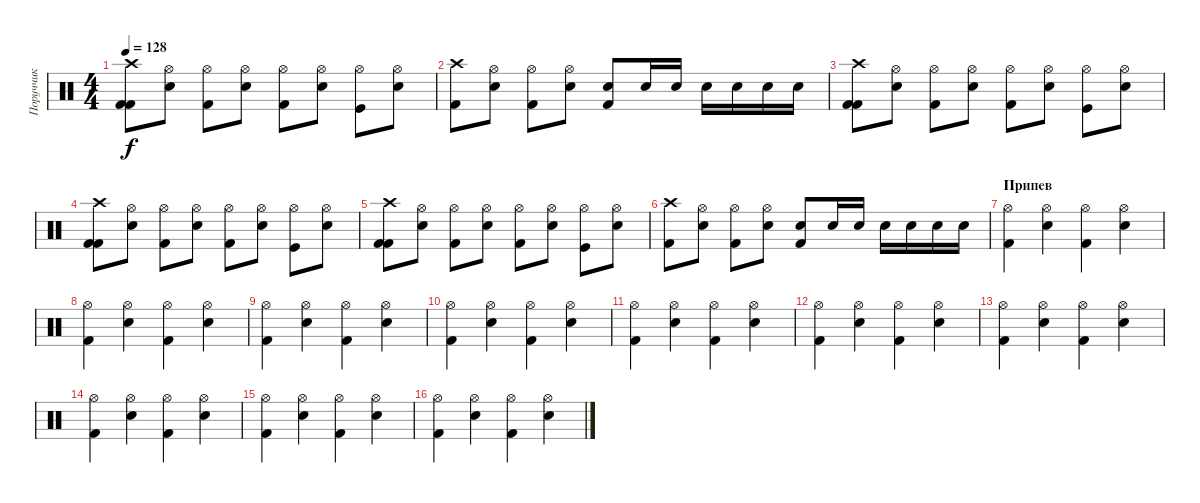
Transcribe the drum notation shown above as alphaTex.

\track ("Поруччик" "Поруччик") {instrument percussion}
\staff {score}
\articulation defaults
\ts (4 4)
\tempo 128
\clef neutral
\ks c
("Crash high (hit)" "Kick (hit) 2" "Kick (hit) 2").8{dy f} ("Hi-Hat (open)" "Snare (hit) 2").8 ("Hi-Hat (open)" "Kick (hit) 2").8 ("Hi-Hat (open)" "Snare (hit) 2").8 ("Hi-Hat (open)" "Kick (hit) 2").8 ("Hi-Hat (open)" "Snare (hit) 2").8 ("Hi-Hat (open)" "Kick (hit)").8 ("Snare (hit) 2" "Hi-Hat (open)").8 |
("Kick (hit) 2" "Crash high (hit)").8 ("Snare (hit) 2" "Hi-Hat (open)").8 ("Kick (hit) 2" "Hi-Hat (open)").8 ("Snare (hit) 2" "Hi-Hat (open)").8 ("Snare (hit) 2" "Kick (hit) 2").8 "Snare (hit) 2".16 "Snare (hit) 2".16 "Snare (hit) 2".16 "Snare (hit) 2".16 "Snare (hit) 2".16 "Snare (hit) 2".16 |
("Crash high (hit)" "Kick (hit) 2" "Kick (hit) 2").8 ("Hi-Hat (open)" "Snare (hit) 2").8 ("Hi-Hat (open)" "Kick (hit) 2").8 ("Hi-Hat (open)" "Snare (hit) 2").8 ("Hi-Hat (open)" "Kick (hit) 2").8 ("Hi-Hat (open)" "Snare (hit) 2").8 ("Hi-Hat (open)" "Kick (hit)").8 ("Snare (hit) 2" "Hi-Hat (open)").8 |
("Crash high (hit)" "Kick (hit) 2" "Kick (hit) 2").8 ("Hi-Hat (open)" "Snare (hit) 2").8 ("Hi-Hat (open)" "Kick (hit) 2").8 ("Hi-Hat (open)" "Snare (hit) 2").8 ("Hi-Hat (open)" "Kick (hit) 2").8 ("Hi-Hat (open)" "Snare (hit) 2").8 ("Hi-Hat (open)" "Kick (hit)").8 ("Snare (hit) 2" "Hi-Hat (open)").8 |
("Crash high (hit)" "Kick (hit) 2" "Kick (hit) 2").8 ("Hi-Hat (open)" "Snare (hit) 2").8 ("Hi-Hat (open)" "Kick (hit) 2").8 ("Hi-Hat (open)" "Snare (hit) 2").8 ("Hi-Hat (open)" "Kick (hit) 2").8 ("Hi-Hat (open)" "Snare (hit) 2").8 ("Hi-Hat (open)" "Kick (hit)").8 ("Snare (hit) 2" "Hi-Hat (open)").8 |
("Kick (hit) 2" "Crash high (hit)").8 ("Snare (hit) 2" "Hi-Hat (open)").8 ("Kick (hit) 2" "Hi-Hat (open)").8 ("Snare (hit) 2" "Hi-Hat (open)").8 ("Snare (hit) 2" "Kick (hit) 2").8 "Snare (hit) 2".16 "Snare (hit) 2".16 "Snare (hit) 2".16 "Snare (hit) 2".16 "Snare (hit) 2".16 "Snare (hit) 2".16 |
\section ("" "Припев")
("Hi-Hat (open)" "Kick (hit) 2").4 ("Hi-Hat (open)" "Electric Snare (hit)").4 ("Hi-Hat (open)" "Kick (hit) 2").4 ("Hi-Hat (open)" "Electric Snare (hit)").4 |
("Hi-Hat (open)" "Kick (hit) 2").4 ("Hi-Hat (open)" "Electric Snare (hit)").4 ("Hi-Hat (open)" "Kick (hit) 2").4 ("Hi-Hat (open)" "Electric Snare (hit)").4 |
("Hi-Hat (open)" "Kick (hit) 2").4 ("Hi-Hat (open)" "Electric Snare (hit)").4 ("Hi-Hat (open)" "Kick (hit) 2").4 ("Hi-Hat (open)" "Electric Snare (hit)").4 |
("Hi-Hat (open)" "Kick (hit) 2").4 ("Hi-Hat (open)" "Electric Snare (hit)").4 ("Hi-Hat (open)" "Kick (hit) 2").4 ("Hi-Hat (open)" "Electric Snare (hit)").4 |
("Hi-Hat (open)" "Kick (hit) 2").4 ("Hi-Hat (open)" "Electric Snare (hit)").4 ("Hi-Hat (open)" "Kick (hit) 2").4 ("Hi-Hat (open)" "Electric Snare (hit)").4 |
("Hi-Hat (open)" "Kick (hit) 2").4 ("Hi-Hat (open)" "Electric Snare (hit)").4 ("Hi-Hat (open)" "Kick (hit) 2").4 ("Hi-Hat (open)" "Electric Snare (hit)").4 |
("Hi-Hat (open)" "Kick (hit) 2").4 ("Hi-Hat (open)" "Electric Snare (hit)").4 ("Hi-Hat (open)" "Kick (hit) 2").4 ("Hi-Hat (open)" "Electric Snare (hit)").4 |
("Hi-Hat (open)" "Kick (hit) 2").4 ("Hi-Hat (open)" "Electric Snare (hit)").4 ("Hi-Hat (open)" "Kick (hit) 2").4 ("Hi-Hat (open)" "Electric Snare (hit)").4 |
("Hi-Hat (open)" "Kick (hit) 2").4 ("Hi-Hat (open)" "Electric Snare (hit)").4 ("Hi-Hat (open)" "Kick (hit) 2").4 ("Hi-Hat (open)" "Electric Snare (hit)").4 |
("Hi-Hat (open)" "Kick (hit) 2").4 ("Hi-Hat (open)" "Electric Snare (hit)").4 ("Hi-Hat (open)" "Kick (hit) 2").4 ("Hi-Hat (open)" "Electric Snare (hit)").4
